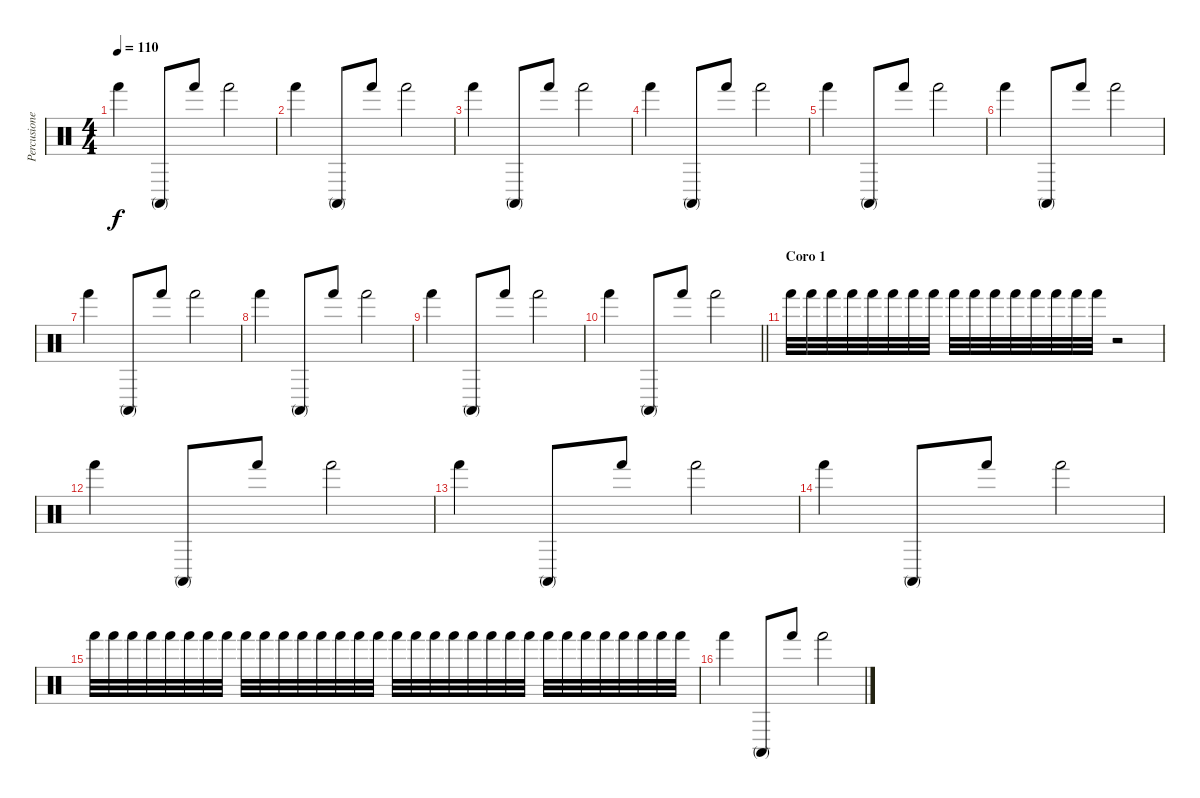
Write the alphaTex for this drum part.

\track ("Percusiones" "Percusione") {instrument percussion}
\staff {score}
\articulation defaults
\ts (4 4)
\tempo 110
\clef neutral
\ks c "Hand (hit)".4{dy f} "Conga high (mute)".8 "Hand (hit)".8 "Hand (hit)".2
|
"Hand (hit)".4 "Conga high (mute)".8 "Hand (hit)".8 "Hand (hit)".2 |
"Hand (hit)".4 "Conga high (mute)".8 "Hand (hit)".8 "Hand (hit)".2 |
"Hand (hit)".4 "Conga high (mute)".8 "Hand (hit)".8 "Hand (hit)".2 |
"Hand (hit)".4 "Conga high (mute)".8 "Hand (hit)".8 "Hand (hit)".2 |
"Hand (hit)".4 "Conga high (mute)".8 "Hand (hit)".8 "Hand (hit)".2 |
"Hand (hit)".4 "Conga high (mute)".8 "Hand (hit)".8 "Hand (hit)".2 |
"Hand (hit)".4 "Conga high (mute)".8 "Hand (hit)".8 "Hand (hit)".2 |
"Hand (hit)".4 "Conga high (mute)".8 "Hand (hit)".8 "Hand (hit)".2 |
\barLineRight lightlight "Hand (hit)".4 "Conga high (mute)".8 "Hand (hit)".8 "Hand (hit)".2
|
\section ("" "Coro 1")
"Hand (hit)".32 "Hand (hit)".32 "Hand (hit)".32 "Hand (hit)".32 "Hand (hit)".32 "Hand (hit)".32 "Hand (hit)".32 "Hand (hit)".32 "Hand (hit)".32 "Hand (hit)".32 "Hand (hit)".32 "Hand (hit)".32 "Hand (hit)".32 "Hand (hit)".32 "Hand (hit)".32 "Hand (hit)".32 r.2 |
"Hand (hit)".4 "Conga high (mute)".8 "Hand (hit)".8 "Hand (hit)".2 |
"Hand (hit)".4 "Conga high (mute)".8 "Hand (hit)".8 "Hand (hit)".2 |
"Hand (hit)".4 "Conga high (mute)".8 "Hand (hit)".8 "Hand (hit)".2 |
"Hand (hit)".32 "Hand (hit)".32 "Hand (hit)".32 "Hand (hit)".32 "Hand (hit)".32 "Hand (hit)".32 "Hand (hit)".32 "Hand (hit)".32 "Hand (hit)".32 "Hand (hit)".32 "Hand (hit)".32 "Hand (hit)".32 "Hand (hit)".32 "Hand (hit)".32 "Hand (hit)".32 "Hand (hit)".32 "Hand (hit)".32 "Hand (hit)".32 "Hand (hit)".32 "Hand (hit)".32 "Hand (hit)".32 "Hand (hit)".32 "Hand (hit)".32 "Hand (hit)".32 "Hand (hit)".32 "Hand (hit)".32 "Hand (hit)".32 "Hand (hit)".32 "Hand (hit)".32 "Hand (hit)".32 "Hand (hit)".32 "Hand (hit)".32 |
"Hand (hit)".4 "Conga high (mute)".8 "Hand (hit)".8 "Hand (hit)".2
